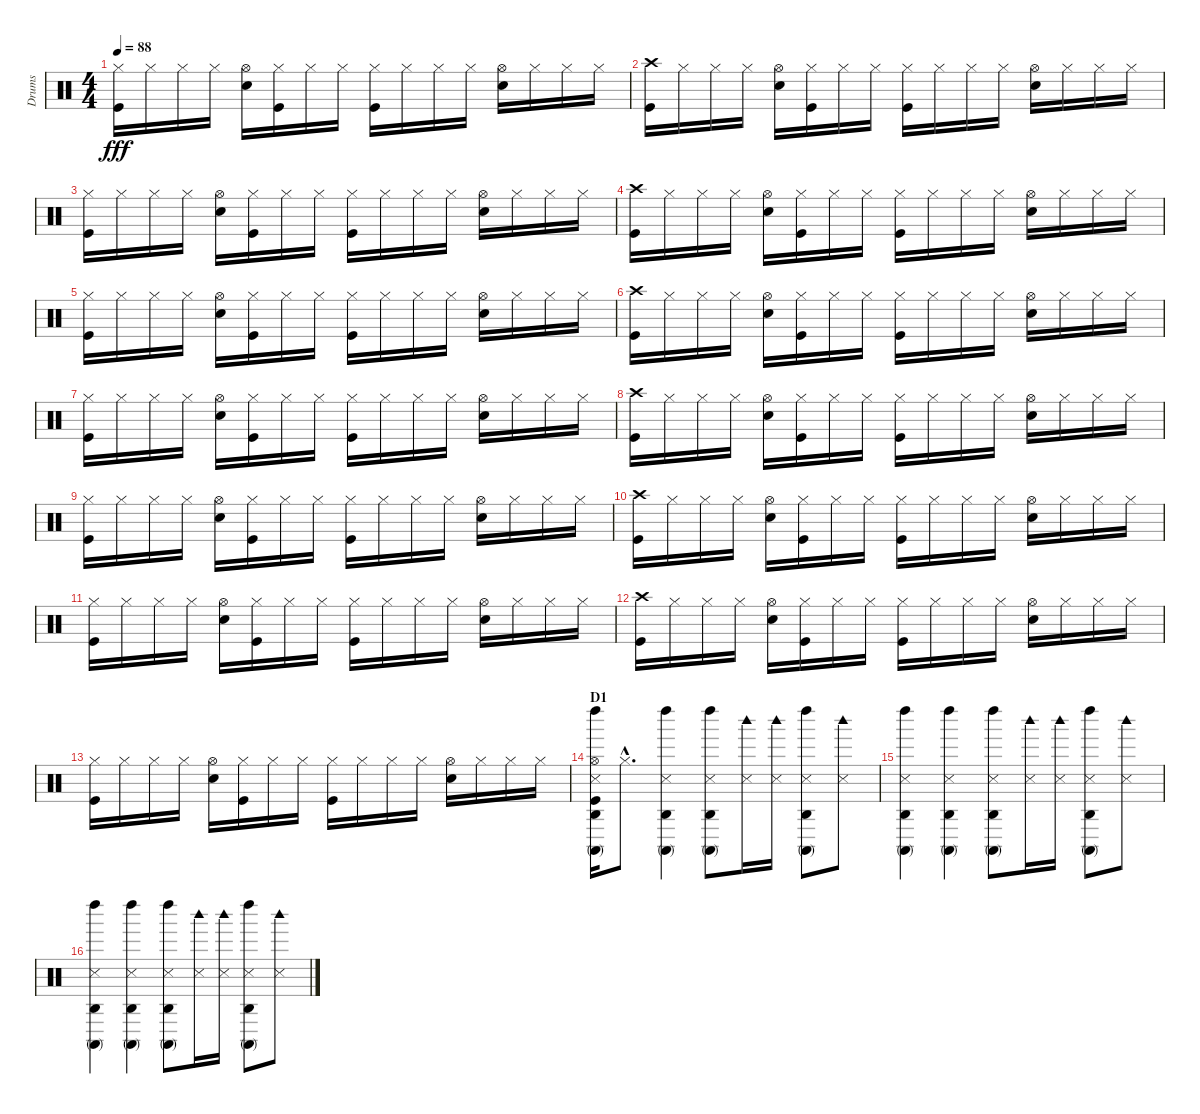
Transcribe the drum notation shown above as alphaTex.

\track ("Drums" "Drums") {instrument percussion}
\staff {score}
\articulation defaults
\ts (4 4)
\tempo 88
\clef neutral
\ks c
("Hi-Hat (closed)" "Kick (hit)").16{dy fff} "Hi-Hat (closed)".16 "Hi-Hat (closed)".16 "Hi-Hat (closed)".16 ("Hi-Hat (open)" "Snare (hit) 2").16 ("Hi-Hat (closed)" "Kick (hit)").16 "Hi-Hat (closed)".16 "Hi-Hat (closed)".16 ("Hi-Hat (closed)" "Kick (hit)").16 "Hi-Hat (closed)".16 "Hi-Hat (closed)".16 "Hi-Hat (closed)".16 ("Hi-Hat (open)" "Snare (hit) 2").16 "Hi-Hat (closed)".16 "Hi-Hat (closed)".16 "Hi-Hat (closed)".16 |
("Crash high (hit)" "Kick (hit)").16 "Hi-Hat (closed)".16 "Hi-Hat (closed)".16 "Hi-Hat (closed)".16 ("Hi-Hat (open)" "Snare (hit) 2").16 ("Hi-Hat (closed)" "Kick (hit)").16 "Hi-Hat (closed)".16 "Hi-Hat (closed)".16 ("Hi-Hat (closed)" "Kick (hit)").16 "Hi-Hat (closed)".16 "Hi-Hat (closed)".16 "Hi-Hat (closed)".16 ("Hi-Hat (open)" "Snare (hit) 2").16 "Hi-Hat (closed)".16 "Hi-Hat (closed)".16 "Hi-Hat (closed)".16 |
("Hi-Hat (closed)" "Kick (hit)").16 "Hi-Hat (closed)".16 "Hi-Hat (closed)".16 "Hi-Hat (closed)".16 ("Hi-Hat (open)" "Snare (hit) 2").16 ("Hi-Hat (closed)" "Kick (hit)").16 "Hi-Hat (closed)".16 "Hi-Hat (closed)".16 ("Hi-Hat (closed)" "Kick (hit)").16 "Hi-Hat (closed)".16 "Hi-Hat (closed)".16 "Hi-Hat (closed)".16 ("Hi-Hat (open)" "Snare (hit) 2").16 "Hi-Hat (closed)".16 "Hi-Hat (closed)".16 "Hi-Hat (closed)".16 |
("Crash high (hit)" "Kick (hit)").16 "Hi-Hat (closed)".16 "Hi-Hat (closed)".16 "Hi-Hat (closed)".16 ("Hi-Hat (open)" "Snare (hit) 2").16 ("Hi-Hat (closed)" "Kick (hit)").16 "Hi-Hat (closed)".16 "Hi-Hat (closed)".16 ("Hi-Hat (closed)" "Kick (hit)").16 "Hi-Hat (closed)".16 "Hi-Hat (closed)".16 "Hi-Hat (closed)".16 ("Hi-Hat (open)" "Snare (hit) 2").16 "Hi-Hat (closed)".16 "Hi-Hat (closed)".16 "Hi-Hat (closed)".16 |
("Hi-Hat (closed)" "Kick (hit)").16 "Hi-Hat (closed)".16 "Hi-Hat (closed)".16 "Hi-Hat (closed)".16 ("Hi-Hat (open)" "Snare (hit) 2").16 ("Hi-Hat (closed)" "Kick (hit)").16 "Hi-Hat (closed)".16 "Hi-Hat (closed)".16 ("Hi-Hat (closed)" "Kick (hit)").16 "Hi-Hat (closed)".16 "Hi-Hat (closed)".16 "Hi-Hat (closed)".16 ("Hi-Hat (open)" "Snare (hit) 2").16 "Hi-Hat (closed)".16 "Hi-Hat (closed)".16 "Hi-Hat (closed)".16 |
("Crash high (hit)" "Kick (hit)").16 "Hi-Hat (closed)".16 "Hi-Hat (closed)".16 "Hi-Hat (closed)".16 ("Hi-Hat (open)" "Snare (hit) 2").16 ("Hi-Hat (closed)" "Kick (hit)").16 "Hi-Hat (closed)".16 "Hi-Hat (closed)".16 ("Hi-Hat (closed)" "Kick (hit)").16 "Hi-Hat (closed)".16 "Hi-Hat (closed)".16 "Hi-Hat (closed)".16 ("Hi-Hat (open)" "Snare (hit) 2").16 "Hi-Hat (closed)".16 "Hi-Hat (closed)".16 "Hi-Hat (closed)".16 |
("Hi-Hat (closed)" "Kick (hit)").16 "Hi-Hat (closed)".16 "Hi-Hat (closed)".16 "Hi-Hat (closed)".16 ("Hi-Hat (open)" "Snare (hit) 2").16 ("Hi-Hat (closed)" "Kick (hit)").16 "Hi-Hat (closed)".16 "Hi-Hat (closed)".16 ("Hi-Hat (closed)" "Kick (hit)").16 "Hi-Hat (closed)".16 "Hi-Hat (closed)".16 "Hi-Hat (closed)".16 ("Hi-Hat (open)" "Snare (hit) 2").16 "Hi-Hat (closed)".16 "Hi-Hat (closed)".16 "Hi-Hat (closed)".16 |
("Crash high (hit)" "Kick (hit)").16 "Hi-Hat (closed)".16 "Hi-Hat (closed)".16 "Hi-Hat (closed)".16 ("Hi-Hat (open)" "Snare (hit) 2").16 ("Hi-Hat (closed)" "Kick (hit)").16 "Hi-Hat (closed)".16 "Hi-Hat (closed)".16 ("Hi-Hat (closed)" "Kick (hit)").16 "Hi-Hat (closed)".16 "Hi-Hat (closed)".16 "Hi-Hat (closed)".16 ("Hi-Hat (open)" "Snare (hit) 2").16 "Hi-Hat (closed)".16 "Hi-Hat (closed)".16 "Hi-Hat (closed)".16 |
("Hi-Hat (closed)" "Kick (hit)").16 "Hi-Hat (closed)".16 "Hi-Hat (closed)".16 "Hi-Hat (closed)".16 ("Hi-Hat (open)" "Snare (hit) 2").16 ("Hi-Hat (closed)" "Kick (hit)").16 "Hi-Hat (closed)".16 "Hi-Hat (closed)".16 ("Hi-Hat (closed)" "Kick (hit)").16 "Hi-Hat (closed)".16 "Hi-Hat (closed)".16 "Hi-Hat (closed)".16 ("Hi-Hat (open)" "Snare (hit) 2").16 "Hi-Hat (closed)".16 "Hi-Hat (closed)".16 "Hi-Hat (closed)".16 |
("Crash high (hit)" "Kick (hit)").16 "Hi-Hat (closed)".16 "Hi-Hat (closed)".16 "Hi-Hat (closed)".16 ("Hi-Hat (open)" "Snare (hit) 2").16 ("Hi-Hat (closed)" "Kick (hit)").16 "Hi-Hat (closed)".16 "Hi-Hat (closed)".16 ("Hi-Hat (closed)" "Kick (hit)").16 "Hi-Hat (closed)".16 "Hi-Hat (closed)".16 "Hi-Hat (closed)".16 ("Hi-Hat (open)" "Snare (hit) 2").16 "Hi-Hat (closed)".16 "Hi-Hat (closed)".16 "Hi-Hat (closed)".16 |
("Hi-Hat (closed)" "Kick (hit)").16 "Hi-Hat (closed)".16 "Hi-Hat (closed)".16 "Hi-Hat (closed)".16 ("Hi-Hat (open)" "Snare (hit) 2").16 ("Hi-Hat (closed)" "Kick (hit)").16 "Hi-Hat (closed)".16 "Hi-Hat (closed)".16 ("Hi-Hat (closed)" "Kick (hit)").16 "Hi-Hat (closed)".16 "Hi-Hat (closed)".16 "Hi-Hat (closed)".16 ("Hi-Hat (open)" "Snare (hit) 2").16 "Hi-Hat (closed)".16 "Hi-Hat (closed)".16 "Hi-Hat (closed)".16 |
("Crash high (hit)" "Kick (hit)").16 "Hi-Hat (closed)".16 "Hi-Hat (closed)".16 "Hi-Hat (closed)".16 ("Hi-Hat (open)" "Snare (hit) 2").16 ("Hi-Hat (closed)" "Kick (hit)").16 "Hi-Hat (closed)".16 "Hi-Hat (closed)".16 ("Hi-Hat (closed)" "Kick (hit)").16 "Hi-Hat (closed)".16 "Hi-Hat (closed)".16 "Hi-Hat (closed)".16 ("Hi-Hat (open)" "Snare (hit) 2").16 "Hi-Hat (closed)".16 "Hi-Hat (closed)".16 "Hi-Hat (closed)".16 |
("Hi-Hat (closed)" "Kick (hit)").16 "Hi-Hat (closed)".16 "Hi-Hat (closed)".16 "Hi-Hat (closed)".16 ("Hi-Hat (open)" "Snare (hit) 2").16 ("Hi-Hat (closed)" "Kick (hit)").16 "Hi-Hat (closed)".16 "Hi-Hat (closed)".16 ("Hi-Hat (closed)" "Kick (hit)").16 "Hi-Hat (closed)".16 "Hi-Hat (closed)".16 "Hi-Hat (closed)".16 ("Hi-Hat (open)" "Snare (hit) 2").16 "Hi-Hat (closed)".16 "Hi-Hat (closed)".16 "Hi-Hat (closed)".16 |
\section ("" "D1")
("Hi-Hat (open)" "Left Maraca (hit)" "Agogo high (hit)" "Conga high (mute)" "Snare (side stick) 3" "Kick (hit)").16 "Hi-Hat (closed)"{hac}.8{d} ("Left Maraca (hit)" "Agogo high (hit)" "Conga high (mute)" "Snare (side stick) 3").4 ("Left Maraca (hit)" "Agogo high (hit)" "Conga high (mute)" "Snare (side stick) 3").8 ("Woodblock high (hit)" "Snare (side stick) 3").16 ("Woodblock high (hit)" "Snare (side stick) 3").16 ("Left Maraca (hit)" "Agogo high (hit)" "Conga high (mute)" "Snare (side stick) 3").8 ("Woodblock high (hit)" "Snare (side stick) 3").8 |
("Left Maraca (hit)" "Agogo high (hit)" "Conga high (mute)" "Snare (side stick) 3").4 ("Left Maraca (hit)" "Agogo high (hit)" "Conga high (mute)" "Snare (side stick) 3").4 ("Left Maraca (hit)" "Agogo high (hit)" "Conga high (mute)" "Snare (side stick) 3").8 ("Woodblock high (hit)" "Snare (side stick) 3").16 ("Woodblock high (hit)" "Snare (side stick) 3").16 ("Left Maraca (hit)" "Agogo high (hit)" "Conga high (mute)" "Snare (side stick) 3").8 ("Woodblock high (hit)" "Snare (side stick) 3").8 |
("Left Maraca (hit)" "Agogo high (hit)" "Conga high (mute)" "Snare (side stick) 3").4 ("Left Maraca (hit)" "Agogo high (hit)" "Conga high (mute)" "Snare (side stick) 3").4 ("Left Maraca (hit)" "Agogo high (hit)" "Conga high (mute)" "Snare (side stick) 3").8 ("Woodblock high (hit)" "Snare (side stick) 3").16 ("Woodblock high (hit)" "Snare (side stick) 3").16 ("Left Maraca (hit)" "Agogo high (hit)" "Conga high (mute)" "Snare (side stick) 3").8 ("Woodblock high (hit)" "Snare (side stick) 3").8
